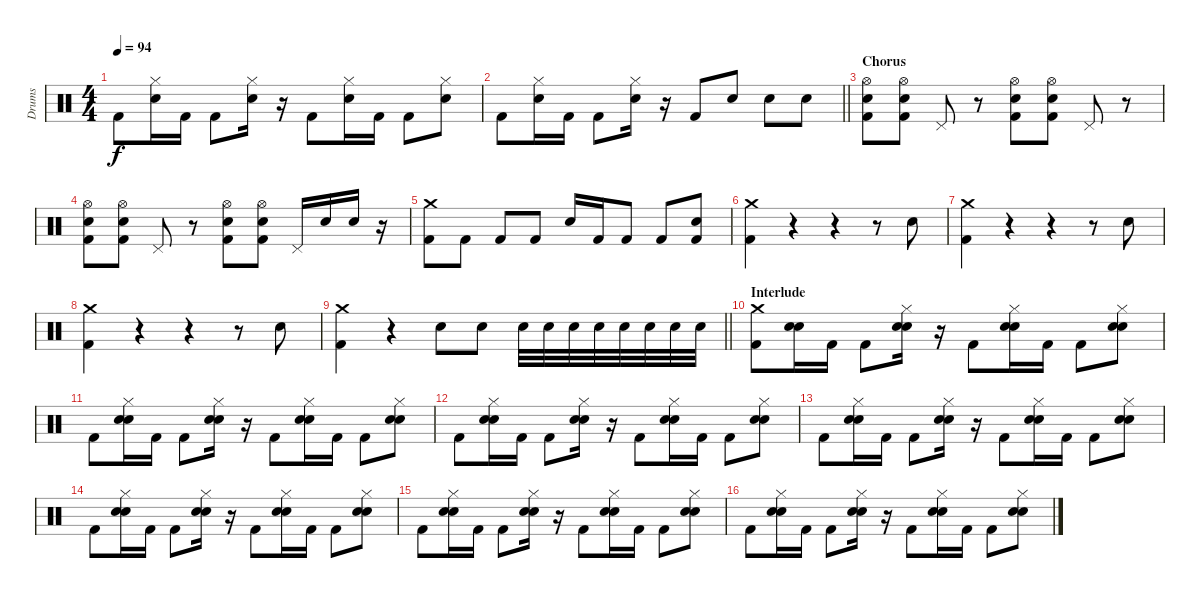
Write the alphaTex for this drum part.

\track ("Drums" "Drums") {instrument percussion}
\staff {score}
\articulation defaults
\ts (4 4)
\tempo 94
\clef neutral
\ks c "Kick (hit) 2".8{dy f}
("Hi-Hat (closed)" "Electric Snare (hit)").16 "Kick (hit) 2".16 "Kick (hit) 2".8 ("Hi-Hat (closed)" "Electric Snare (hit)").16 r.16 "Kick (hit) 2".8 ("Hi-Hat (closed)" "Electric Snare (hit)").16 "Kick (hit) 2".16 "Kick (hit) 2".8 ("Hi-Hat (closed)" "Electric Snare (hit)").8 |
\barLineRight lightlight "Kick (hit) 2".8
("Hi-Hat (closed)" "Electric Snare (hit)").16 "Kick (hit) 2".16 "Kick (hit) 2".8 ("Hi-Hat (closed)" "Electric Snare (hit)").16 r.16 "Kick (hit) 2".8 "Electric Snare (hit)".8 "Electric Snare (hit)".8 "Electric Snare (hit)".8 |
\section ("" "Chorus")
("Hi-Hat (open)" "Electric Snare (hit)" "Kick (hit) 2").8 ("Hi-Hat (open)" "Electric Snare (hit)" "Kick (hit) 2").8 "Pedal Hi-Hat (hit)".8 r.8 ("Hi-Hat (open)" "Electric Snare (hit)" "Kick (hit) 2").8 ("Hi-Hat (open)" "Electric Snare (hit)" "Kick (hit) 2").8 "Pedal Hi-Hat (hit)".8 r.8 |
("Hi-Hat (open)" "Electric Snare (hit)" "Kick (hit) 2").8 ("Hi-Hat (open)" "Electric Snare (hit)" "Kick (hit) 2").8 "Pedal Hi-Hat (hit)".8 r.8 ("Hi-Hat (open)" "Electric Snare (hit)" "Kick (hit) 2").8 ("Hi-Hat (open)" "Electric Snare (hit)" "Kick (hit) 2").8 "Pedal Hi-Hat (hit)".16 "Electric Snare (hit)".16 "Electric Snare (hit)".16 r.16 |
("Crash medium (hit)" "Kick (hit) 2").8 "Kick (hit) 2".8 "Kick (hit) 2".8 "Kick (hit) 2".8 "Electric Snare (hit)".16 "Kick (hit) 2".16 "Kick (hit) 2".8 "Kick (hit) 2".8 ("Electric Snare (hit)" "Kick (hit) 2").8 |
("Crash medium (hit)" "Kick (hit) 2").4 r.4 r.4 r.8 "Electric Snare (hit)".8 |
("Crash medium (hit)" "Kick (hit) 2").4 r.4 r.4 r.8 "Electric Snare (hit)".8 |
("Crash medium (hit)" "Kick (hit) 2").4 r.4 r.4 r.8 "Electric Snare (hit)".8 |
\barLineRight lightlight
("Crash medium (hit)" "Kick (hit) 2").4 r.4 "Electric Snare (hit)".8 "Electric Snare (hit)".8 "Electric Snare (hit)".32 "Electric Snare (hit)".32 "Electric Snare (hit)".32 "Electric Snare (hit)".32 "Electric Snare (hit)".32 "Electric Snare (hit)".32 "Electric Snare (hit)".32 "Electric Snare (hit)".32 |
\section ("" "Interlude")
("Crash medium (hit)" "Kick (hit) 2").8 ("Hand Clap (hit)" "Electric Snare (hit)").16 "Kick (hit) 2".16 "Kick (hit) 2".8 ("Hi-Hat (closed)" "Hand Clap (hit)" "Electric Snare (hit)").16 r.16 "Kick (hit) 2".8 ("Hi-Hat (closed)" "Hand Clap (hit)" "Electric Snare (hit)").16 "Kick (hit) 2".16 "Kick (hit) 2".8 ("Hi-Hat (closed)" "Hand Clap (hit)" "Electric Snare (hit)").8 |
"Kick (hit) 2".8 ("Hi-Hat (closed)" "Hand Clap (hit)" "Electric Snare (hit)").16 "Kick (hit) 2".16 "Kick (hit) 2".8 ("Hi-Hat (closed)" "Hand Clap (hit)" "Electric Snare (hit)").16 r.16 "Kick (hit) 2".8 ("Hi-Hat (closed)" "Hand Clap (hit)" "Electric Snare (hit)").16 "Kick (hit) 2".16 "Kick (hit) 2".8 ("Hi-Hat (closed)" "Hand Clap (hit)" "Electric Snare (hit)").8 |
"Kick (hit) 2".8 ("Hi-Hat (closed)" "Hand Clap (hit)" "Electric Snare (hit)").16 "Kick (hit) 2".16 "Kick (hit) 2".8 ("Hi-Hat (closed)" "Hand Clap (hit)" "Electric Snare (hit)").16 r.16 "Kick (hit) 2".8 ("Hi-Hat (closed)" "Hand Clap (hit)" "Electric Snare (hit)").16 "Kick (hit) 2".16 "Kick (hit) 2".8 ("Hi-Hat (closed)" "Hand Clap (hit)" "Electric Snare (hit)").8 |
"Kick (hit) 2".8 ("Hi-Hat (closed)" "Hand Clap (hit)" "Electric Snare (hit)").16 "Kick (hit) 2".16 "Kick (hit) 2".8 ("Hi-Hat (closed)" "Hand Clap (hit)" "Electric Snare (hit)").16 r.16 "Kick (hit) 2".8 ("Hi-Hat (closed)" "Hand Clap (hit)" "Electric Snare (hit)").16 "Kick (hit) 2".16 "Kick (hit) 2".8 ("Hi-Hat (closed)" "Hand Clap (hit)" "Electric Snare (hit)").8 |
"Kick (hit) 2".8 ("Hi-Hat (closed)" "Hand Clap (hit)" "Electric Snare (hit)").16 "Kick (hit) 2".16 "Kick (hit) 2".8 ("Hi-Hat (closed)" "Hand Clap (hit)" "Electric Snare (hit)").16 r.16 "Kick (hit) 2".8 ("Hi-Hat (closed)" "Hand Clap (hit)" "Electric Snare (hit)").16 "Kick (hit) 2".16 "Kick (hit) 2".8 ("Hi-Hat (closed)" "Hand Clap (hit)" "Electric Snare (hit)").8 |
"Kick (hit) 2".8 ("Hi-Hat (closed)" "Hand Clap (hit)" "Electric Snare (hit)").16 "Kick (hit) 2".16 "Kick (hit) 2".8 ("Hi-Hat (closed)" "Hand Clap (hit)" "Electric Snare (hit)").16 r.16 "Kick (hit) 2".8 ("Hi-Hat (closed)" "Hand Clap (hit)" "Electric Snare (hit)").16 "Kick (hit) 2".16 "Kick (hit) 2".8 ("Hi-Hat (closed)" "Hand Clap (hit)" "Electric Snare (hit)").8 |
"Kick (hit) 2".8 ("Hi-Hat (closed)" "Hand Clap (hit)" "Electric Snare (hit)").16 "Kick (hit) 2".16 "Kick (hit) 2".8 ("Hi-Hat (closed)" "Hand Clap (hit)" "Electric Snare (hit)").16 r.16 "Kick (hit) 2".8 ("Hi-Hat (closed)" "Hand Clap (hit)" "Electric Snare (hit)").16 "Kick (hit) 2".16 "Kick (hit) 2".8 ("Hi-Hat (closed)" "Hand Clap (hit)" "Electric Snare (hit)").8
